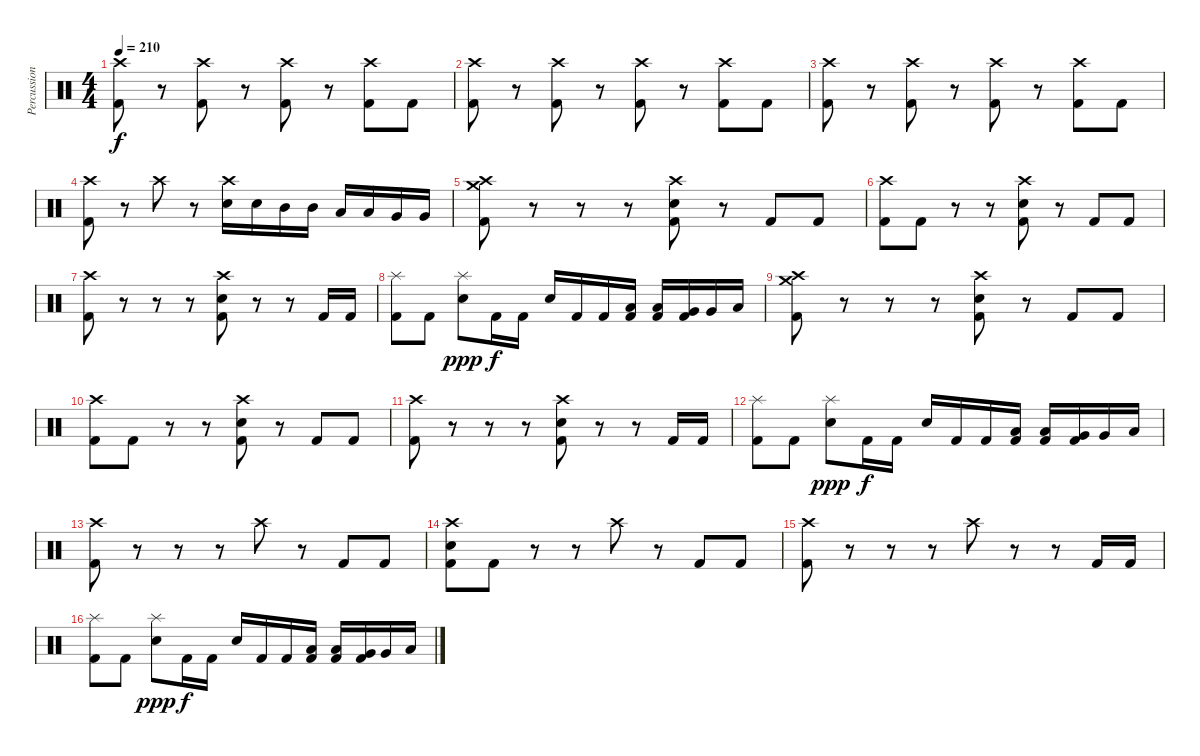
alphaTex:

\track ("Percussion" "Percussion") {instrument percussion}
\staff {score}
\articulation defaults
\ts (4 4)
\tempo 210
\clef neutral
\ks c
("Crash high (hit)" "Kick (hit) 2").8{dy f} r.8 ("Crash high (hit)" "Kick (hit) 2").8 r.8 ("Crash high (hit)" "Kick (hit) 2").8 r.8 ("Crash high (hit)" "Kick (hit) 2").8 "Kick (hit) 2".8 |
("Crash high (hit)" "Kick (hit) 2").8 r.8 ("Crash high (hit)" "Kick (hit) 2").8 r.8 ("Crash high (hit)" "Kick (hit) 2").8 r.8 ("Crash high (hit)" "Kick (hit) 2").8 "Kick (hit) 2".8 |
("Crash high (hit)" "Kick (hit) 2").8 r.8 ("Crash high (hit)" "Kick (hit) 2").8 r.8 ("Crash high (hit)" "Kick (hit) 2").8 r.8 ("Crash high (hit)" "Kick (hit) 2").8 "Kick (hit) 2".8 |
("Crash high (hit)" "Kick (hit) 2").8 r.8 "Crash high (hit)".8 r.8 ("Crash high (hit)" "Snare (hit) 2").16 "Snare (hit) 2".16 "Mid Tom (hit)".16 "Mid Tom (hit)".16 "Low Tom (hit)".16 "Low Tom (hit)".16 "Very Low Tom (hit)".16 "Very Low Tom (hit)".16 |
("Crash medium (hit)" "Crash high (hit)" "Kick (hit) 2").8 r.8 r.8 r.8 ("Crash high (hit)" "Snare (hit) 2" "Kick (hit) 2").8 r.8 "Kick (hit) 2".8 "Kick (hit) 2".8 |
("Crash high (hit)" "Kick (hit) 2").8 "Kick (hit) 2".8 r.8 r.8 ("Crash high (hit)" "Snare (hit) 2" "Kick (hit) 2").8 r.8 "Kick (hit) 2".8 "Kick (hit) 2".8 |
("Crash high (hit)" "Kick (hit) 2").8 r.8 r.8 r.8 ("Crash high (hit)" "Snare (hit) 2" "Kick (hit) 2").8 r.8 r.8 "Kick (hit) 2".16 "Kick (hit) 2".16 |
("Splash (hit)" "Kick (hit) 2").8 "Kick (hit) 2".8 ("Splash (hit)" "Snare (hit) 2").8{dy ppp} "Kick (hit) 2".16{dy f} "Kick (hit) 2".16 "Snare (hit) 2".16 "Kick (hit) 2".16 "Kick (hit) 2".16 ("Low Tom (hit)" "Kick (hit) 2").16 ("Low Tom (hit)" "Kick (hit) 2").16 ("Very Low Tom (hit)" "Kick (hit) 2").16 "Very Low Tom (hit)".16 "Low Floor Tom (hit)".16 |
("Crash medium (hit)" "Crash high (hit)" "Kick (hit) 2").8 r.8 r.8 r.8 ("Crash high (hit)" "Snare (hit) 2" "Kick (hit) 2").8 r.8 "Kick (hit) 2".8 "Kick (hit) 2".8 |
("Crash high (hit)" "Kick (hit) 2").8 "Kick (hit) 2".8 r.8 r.8 ("Crash high (hit)" "Snare (hit) 2" "Kick (hit) 2").8 r.8 "Kick (hit) 2".8 "Kick (hit) 2".8 |
("Crash high (hit)" "Kick (hit) 2").8 r.8 r.8 r.8 ("Crash high (hit)" "Snare (hit) 2" "Kick (hit) 2").8 r.8 r.8 "Kick (hit) 2".16 "Kick (hit) 2".16 |
("Splash (hit)" "Kick (hit) 2").8 "Kick (hit) 2".8 ("Splash (hit)" "Snare (hit) 2").8{dy ppp} "Kick (hit) 2".16{dy f} "Kick (hit) 2".16 "Snare (hit) 2".16 "Kick (hit) 2".16 "Kick (hit) 2".16 ("Low Tom (hit)" "Kick (hit) 2").16 ("Low Tom (hit)" "Kick (hit) 2").16 ("Very Low Tom (hit)" "Kick (hit) 2").16 "Very Low Tom (hit)".16 "Low Floor Tom (hit)".16 |
("Crash high (hit)" "Kick (hit) 2").8 r.8 r.8 r.8 "Crash high (hit)".8 r.8 "Kick (hit) 2".8 "Kick (hit) 2".8 |
("Crash high (hit)" "Snare (hit) 2" "Kick (hit) 2").8 "Kick (hit) 2".8 r.8 r.8 "Crash high (hit)".8 r.8 "Kick (hit) 2".8 "Kick (hit) 2".8 |
("Crash high (hit)" "Kick (hit) 2").8 r.8 r.8 r.8 "Crash high (hit)".8 r.8 r.8 "Kick (hit) 2".16 "Kick (hit) 2".16 |
("Splash (hit)" "Kick (hit) 2").8 "Kick (hit) 2".8 ("Splash (hit)" "Snare (hit) 2").8{dy ppp} "Kick (hit) 2".16{dy f} "Kick (hit) 2".16 "Snare (hit) 2".16 "Kick (hit) 2".16 "Kick (hit) 2".16 ("Low Tom (hit)" "Kick (hit) 2").16 ("Low Tom (hit)" "Kick (hit) 2").16 ("Very Low Tom (hit)" "Kick (hit) 2").16 "Very Low Tom (hit)".16 "Low Floor Tom (hit)".16
